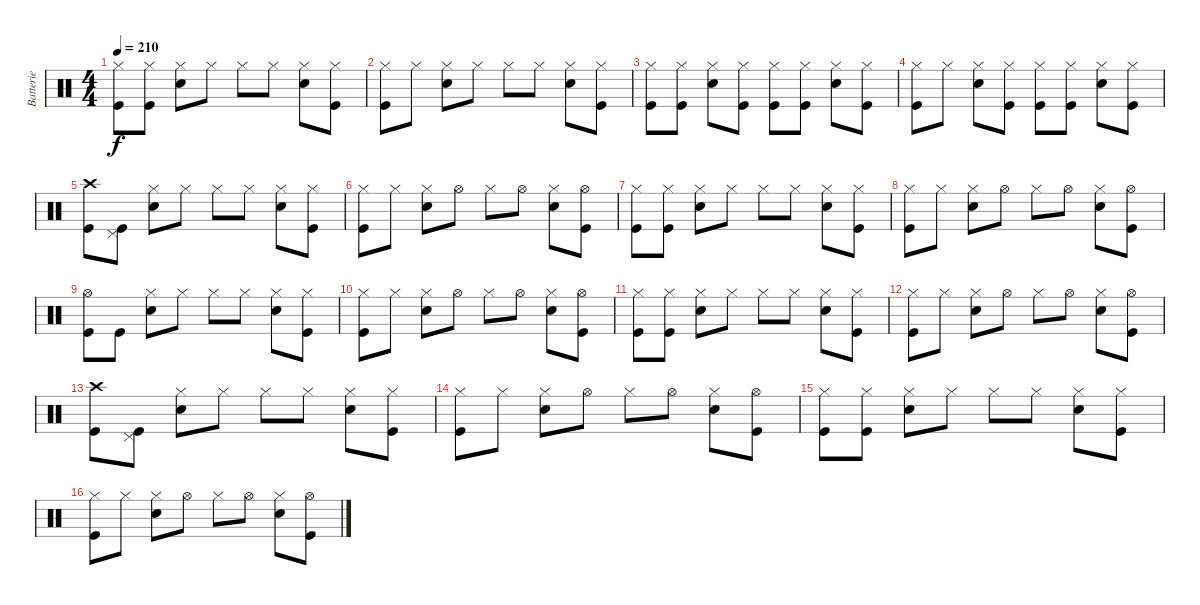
\track ("Batterie" "Batterie") {instrument percussion}
\staff {score}
\articulation defaults
\ts (4 4)
\tempo 210
\clef neutral
\ks c
("Hi-Hat (closed)" "Kick (hit)").8{dy f} ("Hi-Hat (closed)" "Kick (hit)").8 ("Hi-Hat (closed)" "Snare (hit) 2").8 "Hi-Hat (closed)".8 "Hi-Hat (closed)".8 "Hi-Hat (closed)".8 ("Hi-Hat (closed)" "Snare (hit) 2").8 ("Hi-Hat (closed)" "Kick (hit)").8 |
("Hi-Hat (closed)" "Kick (hit)").8 "Hi-Hat (closed)".8 ("Hi-Hat (closed)" "Snare (hit) 2").8 "Hi-Hat (closed)".8 "Hi-Hat (closed)".8 "Hi-Hat (closed)".8 ("Hi-Hat (closed)" "Snare (hit) 2").8 ("Hi-Hat (closed)" "Kick (hit)").8 |
("Hi-Hat (closed)" "Kick (hit)").8 ("Hi-Hat (closed)" "Kick (hit)").8 ("Hi-Hat (closed)" "Snare (hit) 2").8 ("Hi-Hat (closed)" "Kick (hit)").8 ("Hi-Hat (closed)" "Kick (hit)").8 ("Hi-Hat (closed)" "Kick (hit)").8 ("Hi-Hat (closed)" "Snare (hit) 2").8 ("Hi-Hat (closed)" "Kick (hit)").8 |
("Hi-Hat (closed)" "Kick (hit)").8 "Hi-Hat (closed)".8 ("Hi-Hat (closed)" "Snare (hit) 2").8 ("Hi-Hat (closed)" "Kick (hit)").8 ("Hi-Hat (closed)" "Kick (hit)").8 ("Hi-Hat (closed)" "Kick (hit)").8 ("Hi-Hat (closed)" "Snare (hit) 2").8 ("Hi-Hat (closed)" "Kick (hit)").8 |
("Crash high (hit)" "Kick (hit)").8 ("Pedal Hi-Hat (hit)" "Kick (hit)").8 ("Hi-Hat (closed)" "Snare (hit) 2").8 "Hi-Hat (closed)".8 "Hi-Hat (closed)".8 "Hi-Hat (closed)".8 ("Hi-Hat (closed)" "Snare (hit) 2").8 ("Hi-Hat (closed)" "Kick (hit)").8 |
("Hi-Hat (closed)" "Kick (hit)").8 "Hi-Hat (closed)".8 ("Hi-Hat (closed)" "Snare (hit) 2").8 "Hi-Hat (open)".8 "Hi-Hat (closed)".8 "Hi-Hat (open)".8 ("Hi-Hat (closed)" "Snare (hit) 2").8 ("Hi-Hat (open)" "Kick (hit)").8 |
("Hi-Hat (closed)" "Kick (hit)").8 ("Hi-Hat (closed)" "Kick (hit)").8 ("Hi-Hat (closed)" "Snare (hit) 2").8 "Hi-Hat (closed)".8 "Hi-Hat (closed)".8 "Hi-Hat (closed)".8 ("Hi-Hat (closed)" "Snare (hit) 2").8 ("Hi-Hat (closed)" "Kick (hit)").8 |
("Hi-Hat (closed)" "Kick (hit)").8 "Hi-Hat (closed)".8 ("Hi-Hat (closed)" "Snare (hit) 2").8 "Hi-Hat (open)".8 "Hi-Hat (closed)".8 "Hi-Hat (open)".8 ("Hi-Hat (closed)" "Snare (hit) 2").8 ("Hi-Hat (open)" "Kick (hit)").8 |
("Hi-Hat (open)" "Kick (hit)").8 "Kick (hit)".8 ("Hi-Hat (closed)" "Snare (hit) 2").8 "Hi-Hat (closed)".8 "Hi-Hat (closed)".8 "Hi-Hat (closed)".8 ("Hi-Hat (closed)" "Snare (hit) 2").8 ("Hi-Hat (closed)" "Kick (hit)").8 |
("Hi-Hat (closed)" "Kick (hit)").8 "Hi-Hat (closed)".8 ("Hi-Hat (closed)" "Snare (hit) 2").8 "Hi-Hat (open)".8 "Hi-Hat (closed)".8 "Hi-Hat (open)".8 ("Hi-Hat (closed)" "Snare (hit) 2").8 ("Hi-Hat (open)" "Kick (hit)").8 |
("Hi-Hat (closed)" "Kick (hit)").8 ("Hi-Hat (closed)" "Kick (hit)").8 ("Hi-Hat (closed)" "Snare (hit) 2").8 "Hi-Hat (closed)".8 "Hi-Hat (closed)".8 "Hi-Hat (closed)".8 ("Hi-Hat (closed)" "Snare (hit) 2").8 ("Hi-Hat (closed)" "Kick (hit)").8 |
("Hi-Hat (closed)" "Kick (hit)").8 "Hi-Hat (closed)".8 ("Hi-Hat (closed)" "Snare (hit) 2").8 "Hi-Hat (open)".8 "Hi-Hat (closed)".8 "Hi-Hat (open)".8 ("Hi-Hat (closed)" "Snare (hit) 2").8 ("Hi-Hat (open)" "Kick (hit)").8 |
("Crash high (hit)" "Kick (hit)").8 ("Pedal Hi-Hat (hit)" "Kick (hit)").8 ("Hi-Hat (closed)" "Snare (hit) 2").8 "Hi-Hat (closed)".8 "Hi-Hat (closed)".8 "Hi-Hat (closed)".8 ("Hi-Hat (closed)" "Snare (hit) 2").8 ("Hi-Hat (closed)" "Kick (hit)").8 |
("Hi-Hat (closed)" "Kick (hit)").8 "Hi-Hat (closed)".8 ("Hi-Hat (closed)" "Snare (hit) 2").8 "Hi-Hat (open)".8 "Hi-Hat (closed)".8 "Hi-Hat (open)".8 ("Hi-Hat (closed)" "Snare (hit) 2").8 ("Hi-Hat (open)" "Kick (hit)").8 |
("Hi-Hat (closed)" "Kick (hit)").8 ("Hi-Hat (closed)" "Kick (hit)").8 ("Hi-Hat (closed)" "Snare (hit) 2").8 "Hi-Hat (closed)".8 "Hi-Hat (closed)".8 "Hi-Hat (closed)".8 ("Hi-Hat (closed)" "Snare (hit) 2").8 ("Hi-Hat (closed)" "Kick (hit)").8 |
("Hi-Hat (closed)" "Kick (hit)").8 "Hi-Hat (closed)".8 ("Hi-Hat (closed)" "Snare (hit) 2").8 "Hi-Hat (open)".8 "Hi-Hat (closed)".8 "Hi-Hat (open)".8 ("Hi-Hat (closed)" "Snare (hit) 2").8 ("Hi-Hat (open)" "Kick (hit)").8
